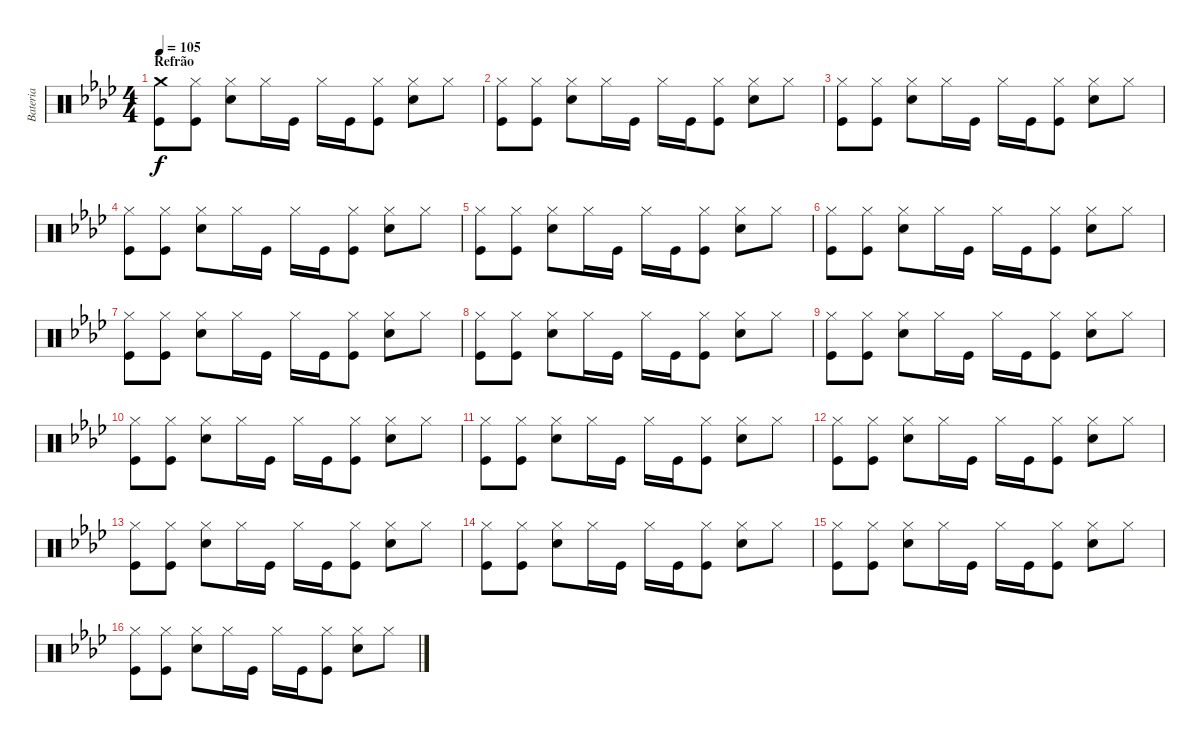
\track ("Bateria" "Bateria") {instrument percussion}
\staff {score}
\articulation defaults
\ts (4 4)
\section ("" "Refrão")
\tempo 105
\clef neutral
\ks fminor
("Crash medium (hit)" "Kick (hit)").8{dy f} ("Hi-Hat (closed)" "Kick (hit)").8 ("Hi-Hat (closed)" "Electric Snare (hit)").8 "Hi-Hat (closed)".16 "Kick (hit)".16 "Hi-Hat (closed)".16 "Kick (hit)".16 ("Hi-Hat (closed)" "Kick (hit)").8 ("Hi-Hat (closed)" "Electric Snare (hit)").8 "Hi-Hat (closed)".8 |
("Hi-Hat (closed)" "Kick (hit)").8 ("Hi-Hat (closed)" "Kick (hit)").8 ("Hi-Hat (closed)" "Electric Snare (hit)").8 "Hi-Hat (closed)".16 "Kick (hit)".16 "Hi-Hat (closed)".16 "Kick (hit)".16 ("Hi-Hat (closed)" "Kick (hit)").8 ("Hi-Hat (closed)" "Electric Snare (hit)").8 "Hi-Hat (closed)".8 |
("Hi-Hat (closed)" "Kick (hit)").8 ("Hi-Hat (closed)" "Kick (hit)").8 ("Hi-Hat (closed)" "Electric Snare (hit)").8 "Hi-Hat (closed)".16 "Kick (hit)".16 "Hi-Hat (closed)".16 "Kick (hit)".16 ("Hi-Hat (closed)" "Kick (hit)").8 ("Hi-Hat (closed)" "Electric Snare (hit)").8 "Hi-Hat (closed)".8 |
("Hi-Hat (closed)" "Kick (hit)").8 ("Hi-Hat (closed)" "Kick (hit)").8 ("Hi-Hat (closed)" "Electric Snare (hit)").8 "Hi-Hat (closed)".16 "Kick (hit)".16 "Hi-Hat (closed)".16 "Kick (hit)".16 ("Hi-Hat (closed)" "Kick (hit)").8 ("Hi-Hat (closed)" "Electric Snare (hit)").8 "Hi-Hat (closed)".8 |
("Hi-Hat (closed)" "Kick (hit)").8 ("Hi-Hat (closed)" "Kick (hit)").8 ("Hi-Hat (closed)" "Electric Snare (hit)").8 "Hi-Hat (closed)".16 "Kick (hit)".16 "Hi-Hat (closed)".16 "Kick (hit)".16 ("Hi-Hat (closed)" "Kick (hit)").8 ("Hi-Hat (closed)" "Electric Snare (hit)").8 "Hi-Hat (closed)".8 |
("Hi-Hat (closed)" "Kick (hit)").8 ("Hi-Hat (closed)" "Kick (hit)").8 ("Hi-Hat (closed)" "Electric Snare (hit)").8 "Hi-Hat (closed)".16 "Kick (hit)".16 "Hi-Hat (closed)".16 "Kick (hit)".16 ("Hi-Hat (closed)" "Kick (hit)").8 ("Hi-Hat (closed)" "Electric Snare (hit)").8 "Hi-Hat (closed)".8 |
("Hi-Hat (closed)" "Kick (hit)").8 ("Hi-Hat (closed)" "Kick (hit)").8 ("Hi-Hat (closed)" "Electric Snare (hit)").8 "Hi-Hat (closed)".16 "Kick (hit)".16 "Hi-Hat (closed)".16 "Kick (hit)".16 ("Hi-Hat (closed)" "Kick (hit)").8 ("Hi-Hat (closed)" "Electric Snare (hit)").8 "Hi-Hat (closed)".8 |
("Hi-Hat (closed)" "Kick (hit)").8 ("Hi-Hat (closed)" "Kick (hit)").8 ("Hi-Hat (closed)" "Electric Snare (hit)").8 "Hi-Hat (closed)".16 "Kick (hit)".16 "Hi-Hat (closed)".16 "Kick (hit)".16 ("Hi-Hat (closed)" "Kick (hit)").8 ("Hi-Hat (closed)" "Electric Snare (hit)").8 "Hi-Hat (closed)".8 |
("Hi-Hat (closed)" "Kick (hit)").8 ("Hi-Hat (closed)" "Kick (hit)").8 ("Hi-Hat (closed)" "Electric Snare (hit)").8 "Hi-Hat (closed)".16 "Kick (hit)".16 "Hi-Hat (closed)".16 "Kick (hit)".16 ("Hi-Hat (closed)" "Kick (hit)").8 ("Hi-Hat (closed)" "Electric Snare (hit)").8 "Hi-Hat (closed)".8 |
("Hi-Hat (closed)" "Kick (hit)").8 ("Hi-Hat (closed)" "Kick (hit)").8 ("Hi-Hat (closed)" "Electric Snare (hit)").8 "Hi-Hat (closed)".16 "Kick (hit)".16 "Hi-Hat (closed)".16 "Kick (hit)".16 ("Hi-Hat (closed)" "Kick (hit)").8 ("Hi-Hat (closed)" "Electric Snare (hit)").8 "Hi-Hat (closed)".8 |
("Hi-Hat (closed)" "Kick (hit)").8 ("Hi-Hat (closed)" "Kick (hit)").8 ("Hi-Hat (closed)" "Electric Snare (hit)").8 "Hi-Hat (closed)".16 "Kick (hit)".16 "Hi-Hat (closed)".16 "Kick (hit)".16 ("Hi-Hat (closed)" "Kick (hit)").8 ("Hi-Hat (closed)" "Electric Snare (hit)").8 "Hi-Hat (closed)".8 |
("Hi-Hat (closed)" "Kick (hit)").8 ("Hi-Hat (closed)" "Kick (hit)").8 ("Hi-Hat (closed)" "Electric Snare (hit)").8 "Hi-Hat (closed)".16 "Kick (hit)".16 "Hi-Hat (closed)".16 "Kick (hit)".16 ("Hi-Hat (closed)" "Kick (hit)").8 ("Hi-Hat (closed)" "Electric Snare (hit)").8 "Hi-Hat (closed)".8 |
("Hi-Hat (closed)" "Kick (hit)").8 ("Hi-Hat (closed)" "Kick (hit)").8 ("Hi-Hat (closed)" "Electric Snare (hit)").8 "Hi-Hat (closed)".16 "Kick (hit)".16 "Hi-Hat (closed)".16 "Kick (hit)".16 ("Hi-Hat (closed)" "Kick (hit)").8 ("Hi-Hat (closed)" "Electric Snare (hit)").8 "Hi-Hat (closed)".8 |
("Hi-Hat (closed)" "Kick (hit)").8 ("Hi-Hat (closed)" "Kick (hit)").8 ("Hi-Hat (closed)" "Electric Snare (hit)").8 "Hi-Hat (closed)".16 "Kick (hit)".16 "Hi-Hat (closed)".16 "Kick (hit)".16 ("Hi-Hat (closed)" "Kick (hit)").8 ("Hi-Hat (closed)" "Electric Snare (hit)").8 "Hi-Hat (closed)".8 |
("Hi-Hat (closed)" "Kick (hit)").8 ("Hi-Hat (closed)" "Kick (hit)").8 ("Hi-Hat (closed)" "Electric Snare (hit)").8 "Hi-Hat (closed)".16 "Kick (hit)".16 "Hi-Hat (closed)".16 "Kick (hit)".16 ("Hi-Hat (closed)" "Kick (hit)").8 ("Hi-Hat (closed)" "Electric Snare (hit)").8 "Hi-Hat (closed)".8 |
("Hi-Hat (closed)" "Kick (hit)").8 ("Hi-Hat (closed)" "Kick (hit)").8 ("Hi-Hat (closed)" "Electric Snare (hit)").8 "Hi-Hat (closed)".16 "Kick (hit)".16 "Hi-Hat (closed)".16 "Kick (hit)".16 ("Hi-Hat (closed)" "Kick (hit)").8 ("Hi-Hat (closed)" "Electric Snare (hit)").8 "Hi-Hat (closed)".8
